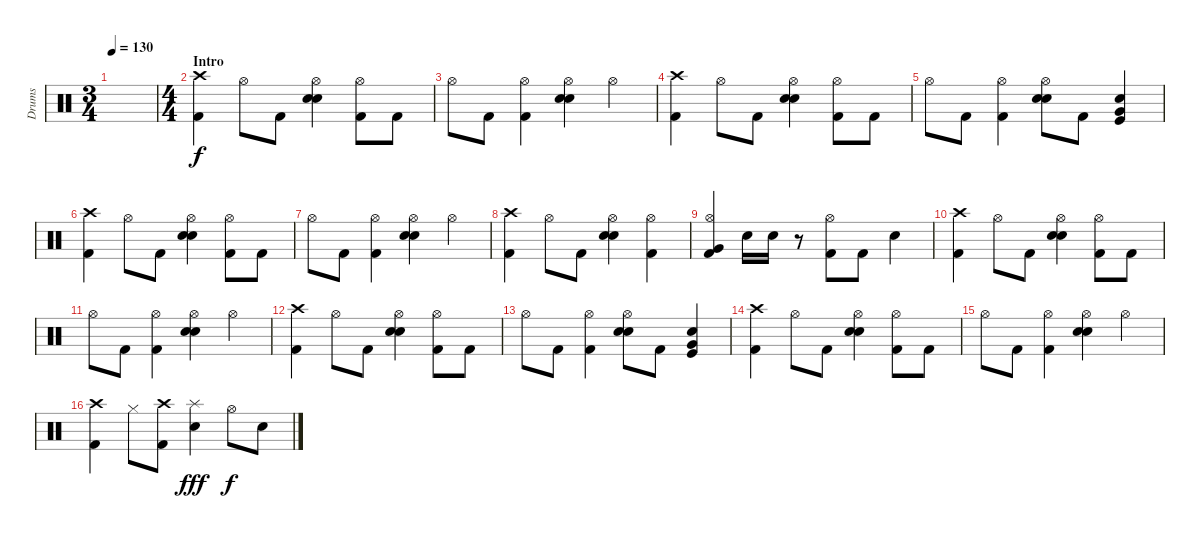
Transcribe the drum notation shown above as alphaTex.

\track ("Drums" "Drums") {instrument percussion}
\staff {score}
\articulation defaults
\ts (3 4)
\tempo 130
\clef neutral
\ks c
|
\ts (4 4)
\section ("" "Intro")
("Crash high (hit)" "Kick (hit) 2").4 "Hi-Hat (open)".8 "Kick (hit) 2".8 ("Hi-Hat (open)" "Snare (hit) 2" "Snare (hit) 2").4 ("Hi-Hat (open)" "Kick (hit) 2").8 "Kick (hit) 2".8 |
"Hi-Hat (open)".8 "Kick (hit) 2".8 ("Hi-Hat (open)" "Kick (hit) 2").4 ("Snare (hit) 2" "Snare (hit) 2" "Hi-Hat (open)").4 "Hi-Hat (open)".4 |
("Crash high (hit)" "Kick (hit) 2").4 "Hi-Hat (open)".8 "Kick (hit) 2".8 ("Hi-Hat (open)" "Snare (hit) 2" "Snare (hit) 2").4 ("Hi-Hat (open)" "Kick (hit) 2").8 "Kick (hit) 2".8 |
"Hi-Hat (open)".8 "Kick (hit) 2".8 ("Hi-Hat (open)" "Kick (hit) 2").4 ("Snare (hit) 2" "Snare (hit) 2" "Hi-Hat (open)").8 "Kick (hit) 2".8 ("Snare (hit) 2" "Very Low Tom (hit)" "Kick (hit)").4 |
("Crash high (hit)" "Kick (hit) 2").4 "Hi-Hat (open)".8 "Kick (hit) 2".8 ("Hi-Hat (open)" "Snare (hit) 2" "Snare (hit) 2").4 ("Hi-Hat (open)" "Kick (hit) 2").8 "Kick (hit) 2".8 |
"Hi-Hat (open)".8 "Kick (hit) 2".8 ("Hi-Hat (open)" "Kick (hit) 2").4 ("Snare (hit) 2" "Snare (hit) 2" "Hi-Hat (open)").4 "Hi-Hat (open)".4 |
("Crash high (hit)" "Kick (hit) 2").4 "Hi-Hat (open)".8 "Kick (hit) 2".8 ("Hi-Hat (open)" "Snare (hit) 2" "Snare (hit) 2").4 ("Hi-Hat (open)" "Kick (hit) 2").4 |
("Hi-Hat (open)" "Very Low Tom (hit)" "Kick (hit) 2").4 "Snare (hit) 2".16 "Snare (hit) 2".16 r.8 ("Hi-Hat (open)" "Kick (hit) 2").8 "Kick (hit) 2".8 "Snare (hit) 2".4 |
("Crash high (hit)" "Kick (hit) 2").4 "Hi-Hat (open)".8 "Kick (hit) 2".8 ("Hi-Hat (open)" "Snare (hit) 2" "Snare (hit) 2").4 ("Hi-Hat (open)" "Kick (hit) 2").8 "Kick (hit) 2".8 |
"Hi-Hat (open)".8 "Kick (hit) 2".8 ("Hi-Hat (open)" "Kick (hit) 2").4 ("Snare (hit) 2" "Snare (hit) 2" "Hi-Hat (open)").4 "Hi-Hat (open)".4 |
("Crash high (hit)" "Kick (hit) 2").4 "Hi-Hat (open)".8 "Kick (hit) 2".8 ("Hi-Hat (open)" "Snare (hit) 2" "Snare (hit) 2").4 ("Hi-Hat (open)" "Kick (hit) 2").8 "Kick (hit) 2".8 |
"Hi-Hat (open)".8 "Kick (hit) 2".8 ("Hi-Hat (open)" "Kick (hit) 2").4 ("Snare (hit) 2" "Snare (hit) 2" "Hi-Hat (open)").8 "Kick (hit) 2".8 ("Snare (hit) 2" "Very Low Tom (hit)" "Kick (hit)").4 |
("Crash high (hit)" "Kick (hit) 2").4 "Hi-Hat (open)".8 "Kick (hit) 2".8 ("Hi-Hat (open)" "Snare (hit) 2" "Snare (hit) 2").4 ("Hi-Hat (open)" "Kick (hit) 2").8 "Kick (hit) 2".8 |
"Hi-Hat (open)".8 "Kick (hit) 2".8 ("Hi-Hat (open)" "Kick (hit) 2").4 ("Snare (hit) 2" "Snare (hit) 2" "Hi-Hat (open)").4 "Hi-Hat (open)".4 |
("Crash high (hit)" "Kick (hit) 2").4 "Hi-Hat (closed)".8 ("Crash high (hit)" "Kick (hit) 2").8 ("Splash (hit)" "Snare (hit) 2").4{dy fff} "Hi-Hat (open)".8{dy f} "Snare (hit) 2".8
